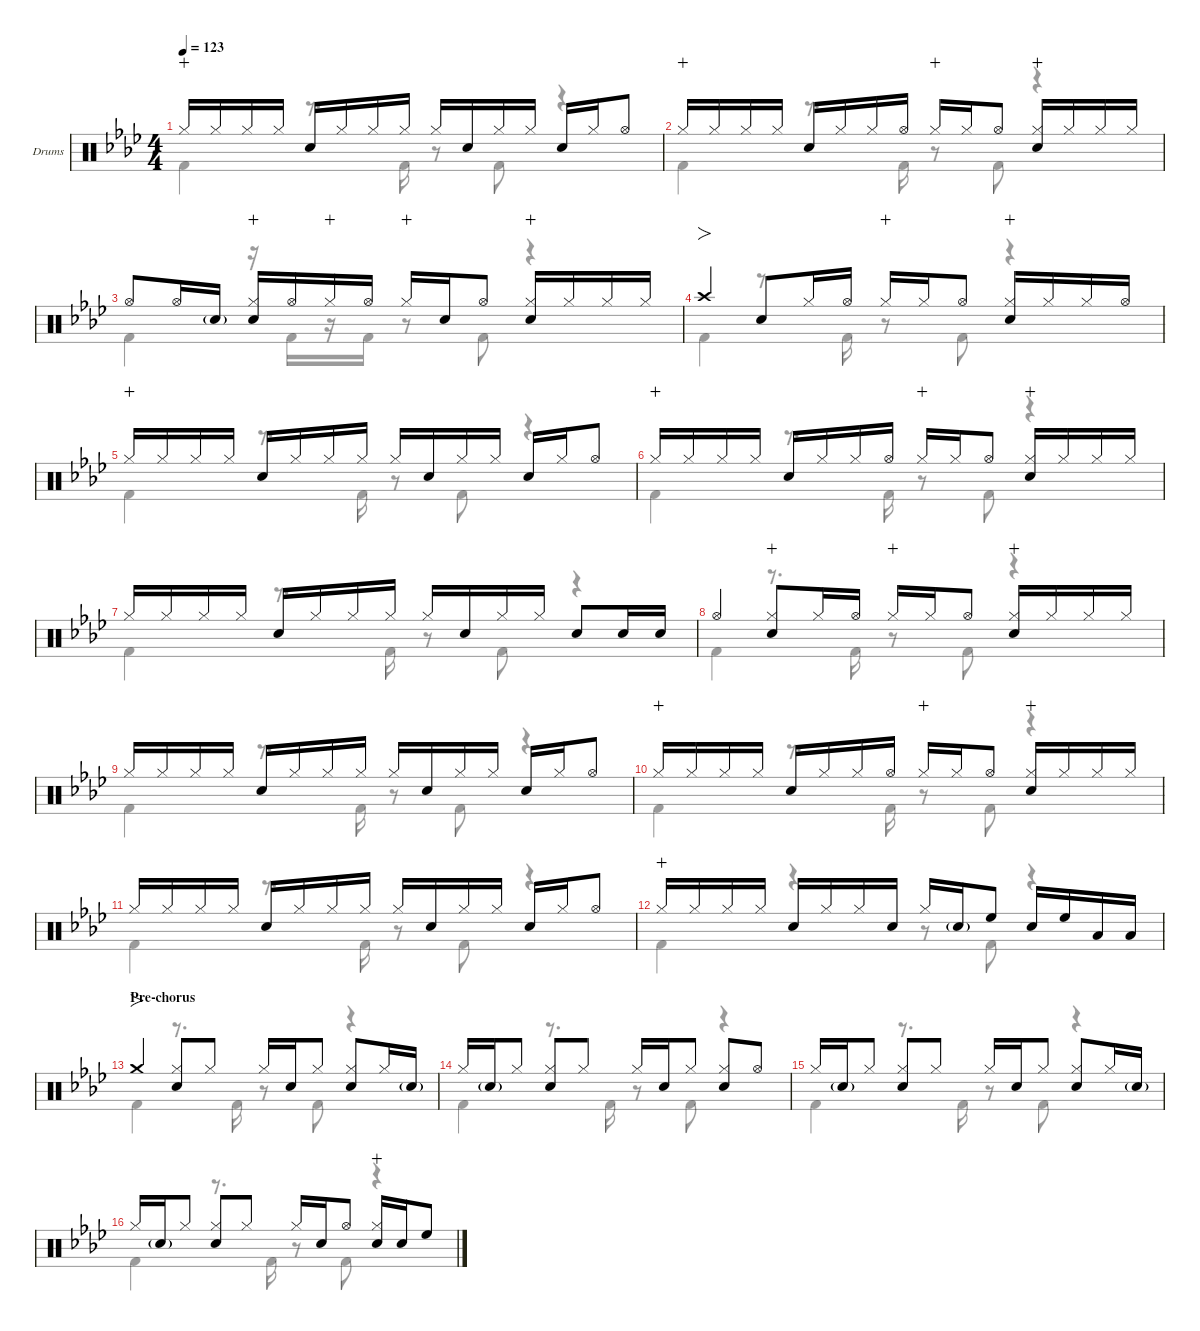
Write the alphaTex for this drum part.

\defaultSystemsLayout 4
\hideDynamics
\bracketExtendMode nobrackets
\firstSystemTrackNameOrientation horizontal
\track ("Drums" "Drums") {defaultSystemsLayout 4 instrument percussion}
\staff {score}
\articulation defaults
\voice
\ts (4 4)
\tempo 123
\clef neutral
\scale
0.244461
\ks ab "Hi-Hat (closed)"{acc forcenatural}.16{dy mp wahc beam Up} "Hi-Hat (closed)"{acc forcenatural}.16{beam Up} "Hi-Hat (closed)"{acc forcenatural}.16{dy f beam Up} "Hi-Hat (closed)"{acc forcenatural}.16{dy mp beam Up} "Snare (hit) 2"{acc forcenatural}.16{dy f beam Up} "Hi-Hat (closed)"{acc forcenatural}.16{dy mp beam Up} "Hi-Hat (closed)"{acc forcenatural}.16{dy f beam Up} "Hi-Hat (closed)"{acc forcenatural}.16{dy mp beam Up} "Hi-Hat (closed)"{acc forcenatural}.16{dy f beam Up} "Snare (hit) 2"{acc forcenatural}.16{beam Up} "Hi-Hat (closed)"{acc forcenatural}.16{beam Up} "Hi-Hat (closed)"{acc forcenatural}.16{dy mp beam Up} "Snare (hit) 2"{acc forcenatural}.16{dy f beam Up} "Hi-Hat (closed)"{acc forcenatural}.16{dy mp beam Up} "Hi-Hat (open)"{acc forcenatural}.8{dy f beam Up}
|
\scale
0.24446 "Hi-Hat (closed)"{acc forcenatural}.16{dy mp wahc beam Up} "Hi-Hat (closed)"{acc forcenatural}.16{beam Up} "Hi-Hat (closed)"{acc forcenatural}.16{dy f beam Up} "Hi-Hat (closed)"{acc forcenatural}.16{dy mp beam Up} "Snare (hit) 2"{acc forcenatural}.16{dy f beam Up} "Hi-Hat (closed)"{acc forcenatural}.16{dy mp beam Up} "Hi-Hat (closed)"{acc forcenatural}.16{dy f beam Up} "Hi-Hat (open)"{acc forcenatural}.16{beam Up} "Hi-Hat (closed)"{acc forcenatural}.16{dy mp wahc beam Up} "Hi-Hat (closed)"{acc forcenatural}.16{beam Up} "Hi-Hat (open)"{acc forcenatural}.8{dy f beam Up} ("Snare (hit) 2"{acc forcenatural} "Hi-Hat (closed)"{acc forcenatural}).16{wahc beam Up} "Hi-Hat (closed)"{acc forcenatural}.16{dy mp beam Up} "Hi-Hat (closed)"{acc forcenatural}.16{dy f beam Up} "Hi-Hat (closed)"{acc forcenatural}.16{dy mp beam Up} |
\scale
0.244461 "Hi-Hat (open)"{acc forcenatural}.8{dy mf beam Up} "Hi-Hat (open)"{acc forcenatural}.16{beam Up} "Snare (hit) 2"{g acc forcenatural}.16{beam Up} ("Hi-Hat (closed)"{acc forcenatural} "Snare (hit) 2"{acc forcenatural}).16{dy f wahc beam Up} "Hi-Hat (open)"{acc forcenatural}.16{beam Up} "Hi-Hat (closed)"{acc forcenatural}.16{dy mp wahc beam Up} "Hi-Hat (open)"{acc forcenatural}.16{dy f beam Up} "Hi-Hat (closed)"{acc forcenatural}.16{dy mp wahc beam Up} "Snare (hit) 2"{acc forcenatural}.16{dy f beam Up} "Hi-Hat (open)"{acc forcenatural}.8{beam Up} ("Snare (hit) 2"{acc forcenatural} "Hi-Hat (closed)"{acc forcenatural}).16{wahc beam Up} "Hi-Hat (closed)"{acc forcenatural}.16{dy mp beam Up} "Hi-Hat (closed)"{acc forcenatural}.16{dy f beam Up} "Hi-Hat (closed)"{acc forcenatural}.16{dy mp beam Up} |
\scale
0.266618 "Crash high (hit)"{acc forcenatural}.4{fo dy f beam Up} "Snare (hit) 2"{acc forcenatural}.8{beam Up} "Hi-Hat (closed)"{acc forcenatural}.16{beam Up} "Hi-Hat (open)"{acc forcenatural}.16{beam Up} "Hi-Hat (closed)"{acc forcenatural}.16{dy mp wahc beam Up} "Hi-Hat (closed)"{acc forcenatural}.16{beam Up} "Hi-Hat (open)"{acc forcenatural}.8{dy f beam Up} ("Snare (hit) 2"{acc forcenatural} "Hi-Hat (closed)"{acc forcenatural}).16{wahc beam Up} "Hi-Hat (closed)"{acc forcenatural}.16{dy mp beam Up} "Hi-Hat (closed)"{acc forcenatural}.16{dy f beam Up} "Hi-Hat (open)"{acc forcenatural}.16{beam Up} |
\scale
0.244461 "Hi-Hat (closed)"{acc forcenatural}.16{dy mp wahc beam Up} "Hi-Hat (closed)"{acc forcenatural}.16{beam Up} "Hi-Hat (closed)"{acc forcenatural}.16{dy f beam Up} "Hi-Hat (closed)"{acc forcenatural}.16{dy mp beam Up} "Snare (hit) 2"{acc forcenatural}.16{dy f beam Up} "Hi-Hat (closed)"{acc forcenatural}.16{dy mp beam Up} "Hi-Hat (closed)"{acc forcenatural}.16{dy f beam Up} "Hi-Hat (closed)"{acc forcenatural}.16{dy mp beam Up} "Hi-Hat (closed)"{acc forcenatural}.16{dy f beam Up} "Snare (hit) 2"{acc forcenatural}.16{beam Up} "Hi-Hat (closed)"{acc forcenatural}.16{beam Up} "Hi-Hat (closed)"{acc forcenatural}.16{dy mp beam Up} "Snare (hit) 2"{acc forcenatural}.16{dy f beam Up} "Hi-Hat (closed)"{acc forcenatural}.16{dy mp beam Up} "Hi-Hat (open)"{acc forcenatural}.8{dy f beam Up} |
\scale
0.24446 "Hi-Hat (closed)"{acc forcenatural}.16{dy mp wahc beam Up} "Hi-Hat (closed)"{acc forcenatural}.16{beam Up} "Hi-Hat (closed)"{acc forcenatural}.16{dy f beam Up} "Hi-Hat (closed)"{acc forcenatural}.16{dy mp beam Up} "Snare (hit) 2"{acc forcenatural}.16{dy f beam Up} "Hi-Hat (closed)"{acc forcenatural}.16{dy mp beam Up} "Hi-Hat (closed)"{acc forcenatural}.16{dy f beam Up} "Hi-Hat (open)"{acc forcenatural}.16{beam Up} "Hi-Hat (closed)"{acc forcenatural}.16{dy mp wahc beam Up} "Hi-Hat (closed)"{acc forcenatural}.16{beam Up} "Hi-Hat (open)"{acc forcenatural}.8{dy f beam Up} ("Snare (hit) 2"{acc forcenatural} "Hi-Hat (closed)"{acc forcenatural}).16{wahc beam Up} "Hi-Hat (closed)"{acc forcenatural}.16{dy mp beam Up} "Hi-Hat (closed)"{acc forcenatural}.16{dy f beam Up} "Hi-Hat (closed)"{acc forcenatural}.16{dy mp beam Up} |
\scale
0.244461 "Hi-Hat (closed)"{acc forcenatural}.16{dy f beam Up} "Hi-Hat (closed)"{acc forcenatural}.16{dy mp beam Up} "Hi-Hat (closed)"{acc forcenatural}.16{dy f beam Up} "Hi-Hat (closed)"{acc forcenatural}.16{dy mp beam Up} "Snare (hit) 2"{acc forcenatural}.16{dy f beam Up} "Hi-Hat (closed)"{acc forcenatural}.16{dy mp beam Up} "Hi-Hat (closed)"{acc forcenatural}.16{dy f beam Up} "Hi-Hat (closed)"{acc forcenatural}.16{dy mp beam Up} "Hi-Hat (closed)"{acc forcenatural}.16{dy f beam Up} "Snare (hit) 2"{acc forcenatural}.16{beam Up} "Hi-Hat (closed)"{acc forcenatural}.16{beam Up} "Hi-Hat (closed)"{acc forcenatural}.16{dy mp beam Up} "Snare (hit) 2"{acc forcenatural}.8{dy f beam Up} "Snare (hit) 2"{acc forcenatural}.16{dy mf beam Up} "Snare (hit) 2"{acc forcenatural}.16{beam Up} |
\scale
0.266618 "Hi-Hat (open)"{acc forcenatural}.4{dy f beam Up} ("Snare (hit) 2"{acc forcenatural} "Hi-Hat (closed)"{acc forcenatural}).8{wahc beam Up} "Hi-Hat (closed)"{acc forcenatural}.16{beam Up} "Hi-Hat (open)"{acc forcenatural}.16{beam Up} "Hi-Hat (closed)"{acc forcenatural}.16{dy mp wahc beam Up} "Hi-Hat (closed)"{acc forcenatural}.16{beam Up} "Hi-Hat (open)"{acc forcenatural}.8{dy f beam Up} ("Snare (hit) 2"{acc forcenatural} "Hi-Hat (closed)"{acc forcenatural}).16{wahc beam Up} "Hi-Hat (closed)"{acc forcenatural}.16{dy mp beam Up} "Hi-Hat (closed)"{acc forcenatural}.16{dy f beam Up} "Hi-Hat (closed)"{acc forcenatural}.16{dy mp beam Up} |
\scale
0.244461 "Hi-Hat (closed)"{acc forcenatural}.16{dy f beam Up} "Hi-Hat (closed)"{acc forcenatural}.16{dy mp beam Up} "Hi-Hat (closed)"{acc forcenatural}.16{dy f beam Up} "Hi-Hat (closed)"{acc forcenatural}.16{dy mp beam Up} "Snare (hit) 2"{acc forcenatural}.16{dy f beam Up} "Hi-Hat (closed)"{acc forcenatural}.16{dy mp beam Up} "Hi-Hat (closed)"{acc forcenatural}.16{dy f beam Up} "Hi-Hat (closed)"{acc forcenatural}.16{dy mp beam Up} "Hi-Hat (closed)"{acc forcenatural}.16{dy f beam Up} "Snare (hit) 2"{acc forcenatural}.16{beam Up} "Hi-Hat (closed)"{acc forcenatural}.16{beam Up} "Hi-Hat (closed)"{acc forcenatural}.16{dy mp beam Up} "Snare (hit) 2"{acc forcenatural}.16{dy f beam Up} "Hi-Hat (closed)"{acc forcenatural}.16{dy mp beam Up} "Hi-Hat (open)"{acc forcenatural}.8{dy f beam Up} |
\scale
0.24446 "Hi-Hat (closed)"{acc forcenatural}.16{dy mp wahc beam Up} "Hi-Hat (closed)"{acc forcenatural}.16{beam Up} "Hi-Hat (closed)"{acc forcenatural}.16{dy f beam Up} "Hi-Hat (closed)"{acc forcenatural}.16{dy mp beam Up} "Snare (hit) 2"{acc forcenatural}.16{dy f beam Up} "Hi-Hat (closed)"{acc forcenatural}.16{dy mp beam Up} "Hi-Hat (closed)"{acc forcenatural}.16{dy f beam Up} "Hi-Hat (open)"{acc forcenatural}.16{beam Up} "Hi-Hat (closed)"{acc forcenatural}.16{dy mp wahc beam Up} "Hi-Hat (closed)"{acc forcenatural}.16{beam Up} "Hi-Hat (open)"{acc forcenatural}.8{dy f beam Up} ("Snare (hit) 2"{acc forcenatural} "Hi-Hat (closed)"{acc forcenatural}).16{wahc beam Up} "Hi-Hat (closed)"{acc forcenatural}.16{dy mp beam Up} "Hi-Hat (closed)"{acc forcenatural}.16{dy f beam Up} "Hi-Hat (closed)"{acc forcenatural}.16{dy mp beam Up} |
\scale
0.244461 "Hi-Hat (closed)"{acc forcenatural}.16{dy f beam Up} "Hi-Hat (closed)"{acc forcenatural}.16{dy mp beam Up} "Hi-Hat (closed)"{acc forcenatural}.16{dy f beam Up} "Hi-Hat (closed)"{acc forcenatural}.16{dy mp beam Up} "Snare (hit) 2"{acc forcenatural}.16{dy f beam Up} "Hi-Hat (closed)"{acc forcenatural}.16{dy mp beam Up} "Hi-Hat (closed)"{acc forcenatural}.16{dy f beam Up} "Hi-Hat (closed)"{acc forcenatural}.16{dy mp beam Up} "Hi-Hat (closed)"{acc forcenatural}.16{dy f beam Up} "Snare (hit) 2"{acc forcenatural}.16{beam Up} "Hi-Hat (closed)"{acc forcenatural}.16{beam Up} "Hi-Hat (closed)"{acc forcenatural}.16{dy mp beam Up} "Snare (hit) 2"{acc forcenatural}.16{dy f beam Up} "Hi-Hat (closed)"{acc forcenatural}.16{dy mp beam Up} "Hi-Hat (open)"{acc forcenatural}.8{dy f beam Up} |
"Hi-Hat (closed)"{acc forcenatural}.16{dy mp wahc beam Up} "Hi-Hat (closed)"{acc forcenatural}.16{beam Up} "Hi-Hat (closed)"{acc forcenatural}.16{dy f beam Up} "Hi-Hat (closed)"{acc forcenatural}.16{dy mp beam Up} "Snare (hit) 2"{acc forcenatural}.16{dy f beam Up} "Hi-Hat (closed)"{acc forcenatural}.16{dy mp beam Up} "Hi-Hat (closed)"{acc forcenatural}.16{dy f beam Up} "Snare (hit) 2"{acc forcenatural}.16{beam Up} "Hi-Hat (closed)"{acc forcenatural}.16{beam Up} "Snare (hit) 2"{g acc forcenatural}.16{dy mp beam Up} "High Floor Tom (hit)"{acc forcenatural}.8{dy f beam Up} "Snare (hit) 2"{acc forcenatural}.16{beam Up} "High Floor Tom (hit)"{acc forcenatural}.16{beam Up} "Low Tom (hit)"{acc forcenatural}.16{beam Up} "Low Tom (hit)"{acc forcenatural}.16{beam Up} |
\section ("" "Pre-chorus")
\scale
0.266618 "Crash medium (hit)"{acc forcenatural}.4{fo beam Up} ("Hi-Hat (closed)"{acc forcenatural} "Snare (hit) 2"{acc forcenatural}).8{beam Up} "Hi-Hat (closed)"{acc forcenatural}.8{dy mf beam Up} "Hi-Hat (closed)"{acc forcenatural}.16{dy f beam Up} "Snare (hit) 2"{acc forcenatural}.16{dy mf beam Up} "Hi-Hat (closed)"{acc forcenatural}.8{beam Up} ("Hi-Hat (closed)"{acc forcenatural} "Snare (hit) 2"{acc forcenatural}).8{dy f beam Up} "Hi-Hat (closed)"{acc forcenatural}.16{dy mf beam Up} "Snare (hit) 2"{g acc forcenatural}.16{dy mp beam Up} |
\scale
0.244461 "Hi-Hat (closed)"{acc forcenatural}.16{dy f beam Up} "Snare (hit) 2"{g acc forcenatural}.16{dy mp beam Up} "Hi-Hat (closed)"{acc forcenatural}.8{dy mf beam Up} ("Hi-Hat (closed)"{acc forcenatural} "Snare (hit) 2"{acc forcenatural}).8{dy f beam Up} "Hi-Hat (closed)"{acc forcenatural}.8{dy mf beam Up} "Hi-Hat (closed)"{acc forcenatural}.16{dy f beam Up} "Snare (hit) 2"{acc forcenatural}.16{dy mf beam Up} "Hi-Hat (closed)"{acc forcenatural}.8{beam Up} ("Hi-Hat (closed)"{acc forcenatural} "Snare (hit) 2"{acc forcenatural}).8{dy f beam Up} "Hi-Hat (open)"{acc forcenatural}.8{beam Up} |
\scale
0.24446 "Hi-Hat (closed)"{acc forcenatural}.16{beam Up} "Snare (hit) 2"{g acc forcenatural}.16{dy mp beam Up} "Hi-Hat (closed)"{acc forcenatural}.8{dy mf beam Up} ("Hi-Hat (closed)"{acc forcenatural} "Snare (hit) 2"{acc forcenatural}).8{dy f beam Up} "Hi-Hat (closed)"{acc forcenatural}.8{dy mf beam Up} "Hi-Hat (closed)"{acc forcenatural}.16{dy f beam Up} "Snare (hit) 2"{acc forcenatural}.16{dy mf beam Up} "Hi-Hat (closed)"{acc forcenatural}.8{beam Up} ("Hi-Hat (closed)"{acc forcenatural} "Snare (hit) 2"{acc forcenatural}).8{dy f beam Up} "Hi-Hat (closed)"{acc forcenatural}.16{dy mf beam Up} "Snare (hit) 2"{g acc forcenatural}.16{dy mp beam Up} |
\scale
0.244461 "Hi-Hat (closed)"{acc forcenatural}.16{dy f beam Up} "Snare (hit) 2"{g acc forcenatural}.16{dy mp beam Up} "Hi-Hat (closed)"{acc forcenatural}.8{dy mf beam Up} ("Hi-Hat (closed)"{acc forcenatural} "Snare (hit) 2"{acc forcenatural}).8{dy f beam Up} "Hi-Hat (closed)"{acc forcenatural}.8{dy mf beam Up} "Hi-Hat (closed)"{acc forcenatural}.16{dy f beam Up} "Snare (hit) 2"{acc forcenatural}.16{dy mf beam Up} "Hi-Hat (open)"{acc forcenatural}.8{dy f beam Up} ("Snare (hit) 2"{acc forcenatural} "Hi-Hat (closed)"{acc forcenatural}).16{wahc beam Up} "Snare (hit) 2"{acc forcenatural}.16{dy mf beam Up} "High Floor Tom (hit)"{acc forcenatural}.8{dy f beam Up}
\voice
\clef neutral
\ottava regular
\simile none
\scale
0.244461
\ks ab "Kick (hit) 2"{acc forcenatural}.4{dy f beam Down}
r.8{d beam Down} "Kick (hit) 2"{acc forcenatural}.16{beam Down} r.8{beam Down} "Kick (hit) 2"{acc forcenatural}.8{beam Down} r.4{beam Down} |
\scale
0.24446 "Kick (hit) 2"{acc forcenatural}.4{beam Down} r.8{d beam Down} "Kick (hit) 2"{acc forcenatural}.16{beam Down} r.8{beam Down} "Kick (hit) 2"{acc forcenatural}.8{beam Down} r.4{beam Down} |
\scale
0.244461 "Kick (hit) 2"{acc forcenatural}.4{beam Down} r.16{beam Down beam split} "Kick (hit) 2"{acc forcenatural}.16{beam Down beam merge} r.16{beam Down beam merge} "Kick (hit) 2"{acc forcenatural}.16{beam Down} r.8{beam Down} "Kick (hit) 2"{acc forcenatural}.8{beam Down} r.4{beam Down} |
\scale
0.266618 "Kick (hit) 2"{acc forcenatural}.4{beam Down} r.8{d beam Down} "Kick (hit) 2"{acc forcenatural}.16{beam Down} r.8{beam Down} "Kick (hit) 2"{acc forcenatural}.8{beam Down} r.4{beam Down} |
\scale
0.244461 "Kick (hit) 2"{acc forcenatural}.4{beam Down} r.8{d beam Down} "Kick (hit) 2"{acc forcenatural}.16{beam Down} r.8{beam Down} "Kick (hit) 2"{acc forcenatural}.8{beam Down} r.4{beam Down} |
\scale
0.24446 "Kick (hit) 2"{acc forcenatural}.4{beam Down} r.8{d beam Down} "Kick (hit) 2"{acc forcenatural}.16{beam Down} r.8{beam Down} "Kick (hit) 2"{acc forcenatural}.8{beam Down} r.4{beam Down} |
\scale
0.244461 "Kick (hit) 2"{acc forcenatural}.4{beam Down} r.8{d beam Down} "Kick (hit) 2"{acc forcenatural}.16{beam Down} r.8{beam Down} "Kick (hit) 2"{acc forcenatural}.8{beam Down} r.4{beam Down} |
\scale
0.266618 "Kick (hit) 2"{acc forcenatural}.4{beam Down} r.8{d beam Down} "Kick (hit) 2"{acc forcenatural}.16{beam Down} r.8{beam Down} "Kick (hit) 2"{acc forcenatural}.8{beam Down} r.4{beam Down} |
\scale
0.244461 "Kick (hit) 2"{acc forcenatural}.4{beam Down} r.8{d beam Down} "Kick (hit) 2"{acc forcenatural}.16{beam Down} r.8{beam Down} "Kick (hit) 2"{acc forcenatural}.8{beam Down} r.4{beam Down} |
\scale
0.24446 "Kick (hit) 2"{acc forcenatural}.4{beam Down} r.8{d beam Down} "Kick (hit) 2"{acc forcenatural}.16{beam Down} r.8{beam Down} "Kick (hit) 2"{acc forcenatural}.8{beam Down} r.4{beam Down} |
\scale
0.244461 "Kick (hit) 2"{acc forcenatural}.4{beam Down} r.8{d beam Down} "Kick (hit) 2"{acc forcenatural}.16{beam Down} r.8{beam Down} "Kick (hit) 2"{acc forcenatural}.8{beam Down} r.4{beam Down} |
"Kick (hit) 2"{acc forcenatural}.4{beam Down} r.4{beam Down} r.8{beam Down} "Kick (hit) 2"{acc forcenatural}.8{beam Down} r.4{beam Down} |
\scale
0.266618 "Kick (hit) 2"{acc forcenatural}.4{beam Down} r.8{d beam Down} "Kick (hit) 2"{acc forcenatural}.16{beam Down} r.8{beam Down} "Kick (hit) 2"{acc forcenatural}.8{beam Down} r.4{beam Down} |
\scale
0.244461 "Kick (hit) 2"{acc forcenatural}.4{beam Down} r.8{d beam Down} "Kick (hit) 2"{acc forcenatural}.16{beam Down} r.8{beam Down} "Kick (hit) 2"{acc forcenatural}.8{beam Down} r.4{beam Down} |
\scale
0.24446 "Kick (hit) 2"{acc forcenatural}.4{beam Down} r.8{d beam Down} "Kick (hit) 2"{acc forcenatural}.16{beam Down} r.8{beam Down} "Kick (hit) 2"{acc forcenatural}.8{beam Down} r.4{beam Down} |
\scale
0.244461 "Kick (hit) 2"{acc forcenatural}.4{beam Down} r.8{d beam Down} "Kick (hit) 2"{acc forcenatural}.16{beam Down} r.8{beam Down} "Kick (hit) 2"{acc forcenatural}.8{beam Down} r.4{beam Down}
